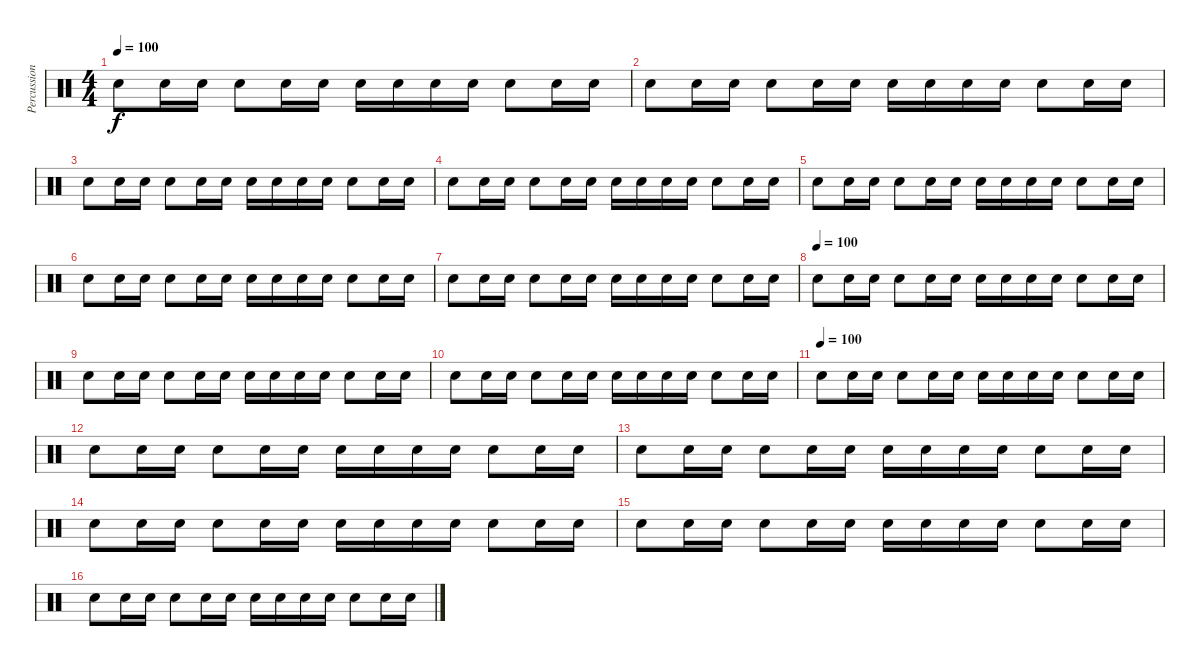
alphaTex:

\track ("Percussions" "Percussion") {instrument percussion}
\staff {score}
\articulation defaults
\ts (4 4)
\tempo 100
\clef neutral
\ks c "Snare (hit) 2".8{dy f} "Snare (hit) 2".16 "Snare (hit) 2".16 "Snare (hit) 2".8 "Snare (hit) 2".16 "Snare (hit) 2".16 "Snare (hit) 2".16 "Snare (hit) 2".16 "Snare (hit) 2".16 "Snare (hit) 2".16 "Snare (hit) 2".8 "Snare (hit) 2".16 "Snare (hit) 2".16
|
"Snare (hit) 2".8 "Snare (hit) 2".16 "Snare (hit) 2".16 "Snare (hit) 2".8 "Snare (hit) 2".16 "Snare (hit) 2".16 "Snare (hit) 2".16 "Snare (hit) 2".16 "Snare (hit) 2".16 "Snare (hit) 2".16 "Snare (hit) 2".8 "Snare (hit) 2".16 "Snare (hit) 2".16 |
"Snare (hit) 2".8 "Snare (hit) 2".16 "Snare (hit) 2".16 "Snare (hit) 2".8 "Snare (hit) 2".16 "Snare (hit) 2".16 "Snare (hit) 2".16 "Snare (hit) 2".16 "Snare (hit) 2".16 "Snare (hit) 2".16 "Snare (hit) 2".8 "Snare (hit) 2".16 "Snare (hit) 2".16 |
"Snare (hit) 2".8 "Snare (hit) 2".16 "Snare (hit) 2".16 "Snare (hit) 2".8 "Snare (hit) 2".16 "Snare (hit) 2".16 "Snare (hit) 2".16 "Snare (hit) 2".16 "Snare (hit) 2".16 "Snare (hit) 2".16 "Snare (hit) 2".8 "Snare (hit) 2".16 "Snare (hit) 2".16 |
"Snare (hit) 2".8 "Snare (hit) 2".16 "Snare (hit) 2".16 "Snare (hit) 2".8 "Snare (hit) 2".16 "Snare (hit) 2".16 "Snare (hit) 2".16 "Snare (hit) 2".16 "Snare (hit) 2".16 "Snare (hit) 2".16 "Snare (hit) 2".8 "Snare (hit) 2".16 "Snare (hit) 2".16 |
"Snare (hit) 2".8 "Snare (hit) 2".16 "Snare (hit) 2".16 "Snare (hit) 2".8 "Snare (hit) 2".16 "Snare (hit) 2".16 "Snare (hit) 2".16 "Snare (hit) 2".16 "Snare (hit) 2".16 "Snare (hit) 2".16 "Snare (hit) 2".8 "Snare (hit) 2".16 "Snare (hit) 2".16 |
"Snare (hit) 2".8 "Snare (hit) 2".16 "Snare (hit) 2".16 "Snare (hit) 2".8 "Snare (hit) 2".16 "Snare (hit) 2".16 "Snare (hit) 2".16 "Snare (hit) 2".16 "Snare (hit) 2".16 "Snare (hit) 2".16 "Snare (hit) 2".8 "Snare (hit) 2".16 "Snare (hit) 2".16 |
\tempo (100)
"Snare (hit) 2".8 "Snare (hit) 2".16 "Snare (hit) 2".16 "Snare (hit) 2".8 "Snare (hit) 2".16 "Snare (hit) 2".16 "Snare (hit) 2".16 "Snare (hit) 2".16 "Snare (hit) 2".16 "Snare (hit) 2".16 "Snare (hit) 2".8 "Snare (hit) 2".16 "Snare (hit) 2".16 |
"Snare (hit) 2".8 "Snare (hit) 2".16 "Snare (hit) 2".16 "Snare (hit) 2".8 "Snare (hit) 2".16 "Snare (hit) 2".16 "Snare (hit) 2".16 "Snare (hit) 2".16 "Snare (hit) 2".16 "Snare (hit) 2".16 "Snare (hit) 2".8 "Snare (hit) 2".16 "Snare (hit) 2".16 |
"Snare (hit) 2".8 "Snare (hit) 2".16 "Snare (hit) 2".16 "Snare (hit) 2".8 "Snare (hit) 2".16 "Snare (hit) 2".16 "Snare (hit) 2".16 "Snare (hit) 2".16 "Snare (hit) 2".16 "Snare (hit) 2".16 "Snare (hit) 2".8 "Snare (hit) 2".16 "Snare (hit) 2".16 |
\tempo (100)
"Snare (hit) 2".8 "Snare (hit) 2".16 "Snare (hit) 2".16 "Snare (hit) 2".8 "Snare (hit) 2".16 "Snare (hit) 2".16 "Snare (hit) 2".16 "Snare (hit) 2".16 "Snare (hit) 2".16 "Snare (hit) 2".16 "Snare (hit) 2".8 "Snare (hit) 2".16 "Snare (hit) 2".16 |
"Snare (hit) 2".8 "Snare (hit) 2".16 "Snare (hit) 2".16 "Snare (hit) 2".8 "Snare (hit) 2".16 "Snare (hit) 2".16 "Snare (hit) 2".16 "Snare (hit) 2".16 "Snare (hit) 2".16 "Snare (hit) 2".16 "Snare (hit) 2".8 "Snare (hit) 2".16 "Snare (hit) 2".16 |
"Snare (hit) 2".8 "Snare (hit) 2".16 "Snare (hit) 2".16 "Snare (hit) 2".8 "Snare (hit) 2".16 "Snare (hit) 2".16 "Snare (hit) 2".16 "Snare (hit) 2".16 "Snare (hit) 2".16 "Snare (hit) 2".16 "Snare (hit) 2".8 "Snare (hit) 2".16 "Snare (hit) 2".16 |
"Snare (hit) 2".8 "Snare (hit) 2".16 "Snare (hit) 2".16 "Snare (hit) 2".8 "Snare (hit) 2".16 "Snare (hit) 2".16 "Snare (hit) 2".16 "Snare (hit) 2".16 "Snare (hit) 2".16 "Snare (hit) 2".16 "Snare (hit) 2".8 "Snare (hit) 2".16 "Snare (hit) 2".16 |
"Snare (hit) 2".8 "Snare (hit) 2".16 "Snare (hit) 2".16 "Snare (hit) 2".8 "Snare (hit) 2".16 "Snare (hit) 2".16 "Snare (hit) 2".16 "Snare (hit) 2".16 "Snare (hit) 2".16 "Snare (hit) 2".16 "Snare (hit) 2".8 "Snare (hit) 2".16 "Snare (hit) 2".16 |
"Snare (hit) 2".8 "Snare (hit) 2".16 "Snare (hit) 2".16 "Snare (hit) 2".8 "Snare (hit) 2".16 "Snare (hit) 2".16 "Snare (hit) 2".16 "Snare (hit) 2".16 "Snare (hit) 2".16 "Snare (hit) 2".16 "Snare (hit) 2".8 "Snare (hit) 2".16 "Snare (hit) 2".16
